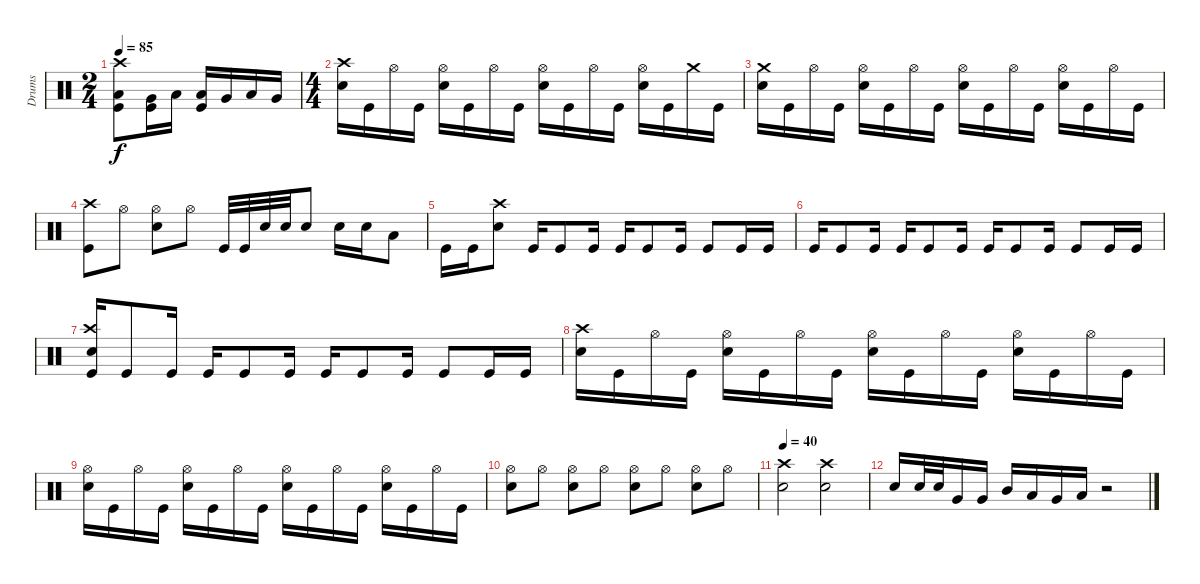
\track ("Drums" "Drums") {instrument percussion}
\staff {score}
\articulation defaults
\ts (2 4)
\tempo 85
\clef neutral
\ks c
("Low Tom (hit)" "Kick (hit)" "Crash high (hit)").8{dy f} ("Kick (hit)" "Very Low Tom (hit)").16 "Low Floor Tom (hit)".16 ("Low Tom (hit)" "Kick (hit)").16 "Very Low Tom (hit)".16 "Low Floor Tom (hit)".16 "Very Low Tom (hit)".16 |
\ts (4 4)
("Snare (hit) 2" "Crash high (hit)").16 "Kick (hit)".16 "Hi-Hat (open)".16 "Kick (hit)".16 ("Snare (hit) 2" "Hi-Hat (open)").16 "Kick (hit)".16 "Hi-Hat (open)".16 "Kick (hit)".16 ("Snare (hit) 2" "Hi-Hat (open)").16 "Kick (hit)".16 "Hi-Hat (open)".16 "Kick (hit)".16 ("Snare (hit) 2" "Hi-Hat (open)").16 "Kick (hit)".16 "Crash medium (hit)".16 "Kick (hit)".16 |
("Snare (hit) 2" "Crash medium (hit)").16 "Kick (hit)".16 "Hi-Hat (open)".16 "Kick (hit)".16 ("Snare (hit) 2" "Hi-Hat (open)").16 "Kick (hit)".16 "Hi-Hat (open)".16 "Kick (hit)".16 ("Snare (hit) 2" "Hi-Hat (open)").16 "Kick (hit)".16 "Hi-Hat (open)".16 "Kick (hit)".16 ("Snare (hit) 2" "Hi-Hat (open)").16 "Kick (hit)".16 "Hi-Hat (open)".16 "Kick (hit)".16 |
("Crash high (hit)" "Kick (hit)").8 "Hi-Hat (open)".8 ("Snare (hit) 2" "Hi-Hat (open)").8 "Hi-Hat (open)".8 "Kick (hit)".32 "Kick (hit)".32 "Snare (hit) 2".32 "Snare (hit) 2".32 "Snare (hit) 2".8 "Snare (hit) 2".16 "Snare (hit) 2".16 "Low Tom (hit)".8 |
"Kick (hit)".16 "Kick (hit)".16 ("Snare (hit) 2" "Crash high (hit)").8 "Kick (hit)".16 "Kick (hit)".8 "Kick (hit)".16 "Kick (hit)".16 "Kick (hit)".8 "Kick (hit)".16 "Kick (hit)".8 "Kick (hit)".16 "Kick (hit)".16 |
"Kick (hit)".16 "Kick (hit)".8 "Kick (hit)".16 "Kick (hit)".16 "Kick (hit)".8 "Kick (hit)".16 "Kick (hit)".16 "Kick (hit)".8 "Kick (hit)".16 "Kick (hit)".8 "Kick (hit)".16 "Kick (hit)".16 |
("Crash high (hit)" "Snare (hit) 2" "Kick (hit)").16 "Kick (hit)".8 "Kick (hit)".16 "Kick (hit)".16 "Kick (hit)".8 "Kick (hit)".16 "Kick (hit)".16 "Kick (hit)".8 "Kick (hit)".16 "Kick (hit)".8 "Kick (hit)".16 "Kick (hit)".16 |
("Snare (hit) 2" "Crash high (hit)").16 "Kick (hit)".16 "Hi-Hat (open)".16 "Kick (hit)".16 ("Snare (hit) 2" "Hi-Hat (open)").16 "Kick (hit)".16 "Hi-Hat (open)".16 "Kick (hit)".16 ("Snare (hit) 2" "Hi-Hat (open)").16 "Kick (hit)".16 "Hi-Hat (open)".16 "Kick (hit)".16 ("Snare (hit) 2" "Hi-Hat (open)").16 "Kick (hit)".16 "Hi-Hat (open)".16 "Kick (hit)".16 |
("Snare (hit) 2" "Hi-Hat (open)").16 "Kick (hit)".16 "Hi-Hat (open)".16 "Kick (hit)".16 ("Snare (hit) 2" "Hi-Hat (open)").16 "Kick (hit)".16 "Hi-Hat (open)".16 "Kick (hit)".16 ("Snare (hit) 2" "Hi-Hat (open)").16 "Kick (hit)".16 "Hi-Hat (open)".16 "Kick (hit)".16 ("Snare (hit) 2" "Hi-Hat (open)").16 "Kick (hit)".16 "Hi-Hat (open)".16 "Kick (hit)".16 |
("Snare (hit) 2" "Hi-Hat (open)").8 "Hi-Hat (open)".8 ("Hi-Hat (open)" "Snare (hit) 2").8 "Hi-Hat (open)".8 ("Snare (hit) 2" "Hi-Hat (open)").8 "Hi-Hat (open)".8 ("Snare (hit) 2" "Hi-Hat (open)").8 "Hi-Hat (open)".8 |
\tempo 40
("Snare (hit) 2" "Crash high (hit)").2 ("Snare (hit) 2" "Crash high (hit)").2 |
"Snare (hit) 2".16 "Snare (hit) 2".32 "Snare (hit) 2".32 "Very Low Tom (hit)".16 "Very Low Tom (hit)".16 "Mid Tom (hit)".16 "Low Tom (hit)".16 "Very Low Tom (hit)".16 "Low Floor Tom (hit)".16 r.2
